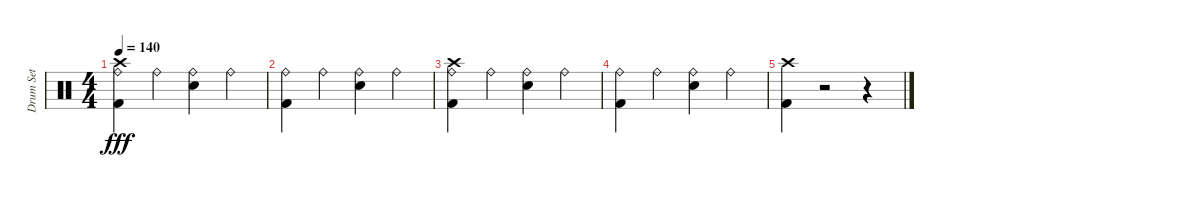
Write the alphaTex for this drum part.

\track ("Drum Set" "Drum Set") {instrument percussion}
\staff {score}
\articulation defaults
\ts (4 4)
\tempo 140
\clef neutral
\ks c
("Kick (hit) 2" "Crash high (hit)" "Ride (bell)").4{dy fff} "Ride (bell)".4 ("Electric Snare (hit)" "Ride (bell)").4 "Ride (bell)".4 |
("Kick (hit) 2" "Ride (bell)").4 "Ride (bell)".4 ("Electric Snare (hit)" "Ride (bell)").4 "Ride (bell)".4 |
("Kick (hit) 2" "Crash high (hit)" "Ride (bell)").4 "Ride (bell)".4 ("Electric Snare (hit)" "Ride (bell)").4 "Ride (bell)".4 |
("Kick (hit) 2" "Ride (bell)").4 "Ride (bell)".4 ("Electric Snare (hit)" "Ride (bell)").4 "Ride (bell)".4 |
("Kick (hit) 2" "Crash high (hit)").4 r.2 r.4
